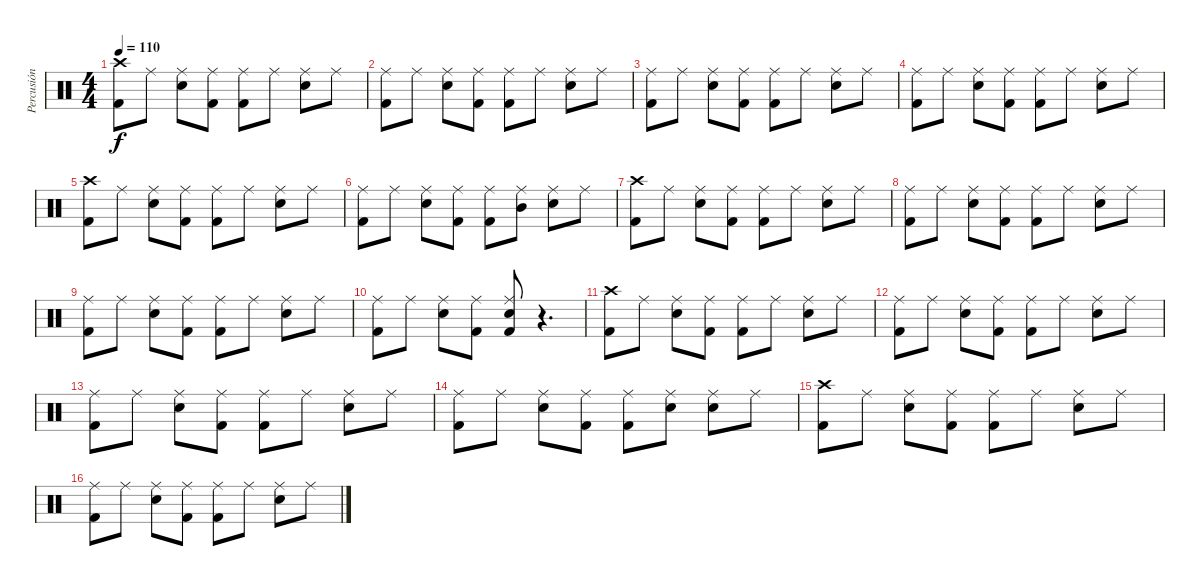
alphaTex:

\track ("Percusión" "Percusión") {instrument percussion}
\staff {score}
\articulation defaults
\ts (4 4)
\tempo 110
\clef neutral
\ks c
("Crash high (hit)" "Kick (hit) 2").8{dy f} "Ride (middle)".8 ("Ride (middle)" "Snare (hit) 2").8 ("Ride (middle)" "Kick (hit) 2").8 ("Ride (middle)" "Kick (hit) 2").8 "Ride (middle)".8 ("Ride (middle)" "Snare (hit) 2").8 "Ride (middle)".8 |
("Ride (middle)" "Kick (hit) 2").8 "Ride (middle)".8 ("Ride (middle)" "Snare (hit) 2").8 ("Ride (middle)" "Kick (hit) 2").8 ("Ride (middle)" "Kick (hit) 2").8 "Ride (middle)".8 ("Ride (middle)" "Snare (hit) 2").8 "Ride (middle)".8 |
("Ride (middle)" "Kick (hit) 2").8 "Ride (middle)".8 ("Ride (middle)" "Snare (hit) 2").8 ("Ride (middle)" "Kick (hit) 2").8 ("Ride (middle)" "Kick (hit) 2").8 "Ride (middle)".8 ("Ride (middle)" "Snare (hit) 2").8 "Ride (middle)".8 |
("Ride (middle)" "Kick (hit) 2").8 "Ride (middle)".8 ("Ride (middle)" "Snare (hit) 2").8 ("Ride (middle)" "Kick (hit) 2").8 ("Ride (middle)" "Kick (hit) 2").8 "Ride (middle)".8 ("Ride (middle)" "Snare (hit) 2").8 "Ride (middle)".8 |
("Crash high (hit)" "Kick (hit) 2").8 "Ride (middle)".8 ("Ride (middle)" "Snare (hit) 2").8 ("Ride (middle)" "Kick (hit) 2").8 ("Ride (middle)" "Kick (hit) 2").8 "Ride (middle)".8 ("Ride (middle)" "Snare (hit) 2").8 "Ride (middle)".8 |
("Ride (middle)" "Kick (hit) 2").8 "Ride (middle)".8 ("Ride (middle)" "Snare (hit) 2").8 ("Ride (middle)" "Kick (hit) 2").8 ("Ride (middle)" "Kick (hit) 2").8 ("Ride (middle)" "Mid Tom (hit)").8 ("Ride (middle)" "Snare (hit) 2").8 "Ride (middle)".8 |
("Crash high (hit)" "Kick (hit) 2").8 "Ride (middle)".8 ("Ride (middle)" "Snare (hit) 2").8 ("Ride (middle)" "Kick (hit) 2").8 ("Ride (middle)" "Kick (hit) 2").8 "Ride (middle)".8 ("Ride (middle)" "Snare (hit) 2").8 "Ride (middle)".8 |
("Ride (middle)" "Kick (hit) 2").8 "Ride (middle)".8 ("Ride (middle)" "Snare (hit) 2").8 ("Ride (middle)" "Kick (hit) 2").8 ("Ride (middle)" "Kick (hit) 2").8 "Ride (middle)".8 ("Ride (middle)" "Snare (hit) 2").8 "Ride (middle)".8 |
("Ride (middle)" "Kick (hit) 2").8 "Ride (middle)".8 ("Ride (middle)" "Snare (hit) 2").8 ("Ride (middle)" "Kick (hit) 2").8 ("Ride (middle)" "Kick (hit) 2").8 "Ride (middle)".8 ("Ride (middle)" "Snare (hit) 2").8 "Ride (middle)".8 |
("Ride (middle)" "Kick (hit) 2").8 "Ride (middle)".8 ("Ride (middle)" "Snare (hit) 2").8 ("Ride (middle)" "Kick (hit) 2").8 ("Ride (middle)" "Kick (hit) 2" "Snare (hit) 2").8 r.4{d} |
("Crash high (hit)" "Kick (hit) 2").8 "Ride (middle)".8 ("Ride (middle)" "Snare (hit) 2").8 ("Ride (middle)" "Kick (hit) 2").8 ("Ride (middle)" "Kick (hit) 2").8 "Ride (middle)".8 ("Ride (middle)" "Snare (hit) 2").8 "Ride (middle)".8 |
("Ride (middle)" "Kick (hit) 2").8 "Ride (middle)".8 ("Ride (middle)" "Snare (hit) 2").8 ("Ride (middle)" "Kick (hit) 2").8 ("Ride (middle)" "Kick (hit) 2").8 "Ride (middle)".8 ("Ride (middle)" "Snare (hit) 2").8 "Ride (middle)".8 |
("Ride (middle)" "Kick (hit) 2").8 "Ride (middle)".8 ("Ride (middle)" "Snare (hit) 2").8 ("Ride (middle)" "Kick (hit) 2").8 ("Ride (middle)" "Kick (hit) 2").8 "Ride (middle)".8 ("Ride (middle)" "Snare (hit) 2").8 "Ride (middle)".8 |
("Ride (middle)" "Kick (hit) 2").8 "Ride (middle)".8 ("Ride (middle)" "Snare (hit) 2").8 ("Ride (middle)" "Kick (hit) 2").8 ("Ride (middle)" "Kick (hit) 2").8 ("Ride (middle)" "Snare (hit) 2").8 ("Ride (middle)" "Snare (hit) 2").8 "Ride (middle)".8 |
("Crash high (hit)" "Kick (hit) 2").8 "Ride (middle)".8 ("Ride (middle)" "Snare (hit) 2").8 ("Ride (middle)" "Kick (hit) 2").8 ("Ride (middle)" "Kick (hit) 2").8 "Ride (middle)".8 ("Ride (middle)" "Snare (hit) 2").8 "Ride (middle)".8 |
("Ride (middle)" "Kick (hit) 2").8 "Ride (middle)".8 ("Ride (middle)" "Snare (hit) 2").8 ("Ride (middle)" "Kick (hit) 2").8 ("Ride (middle)" "Kick (hit) 2").8 "Ride (middle)".8 ("Ride (middle)" "Snare (hit) 2").8 "Ride (middle)".8
